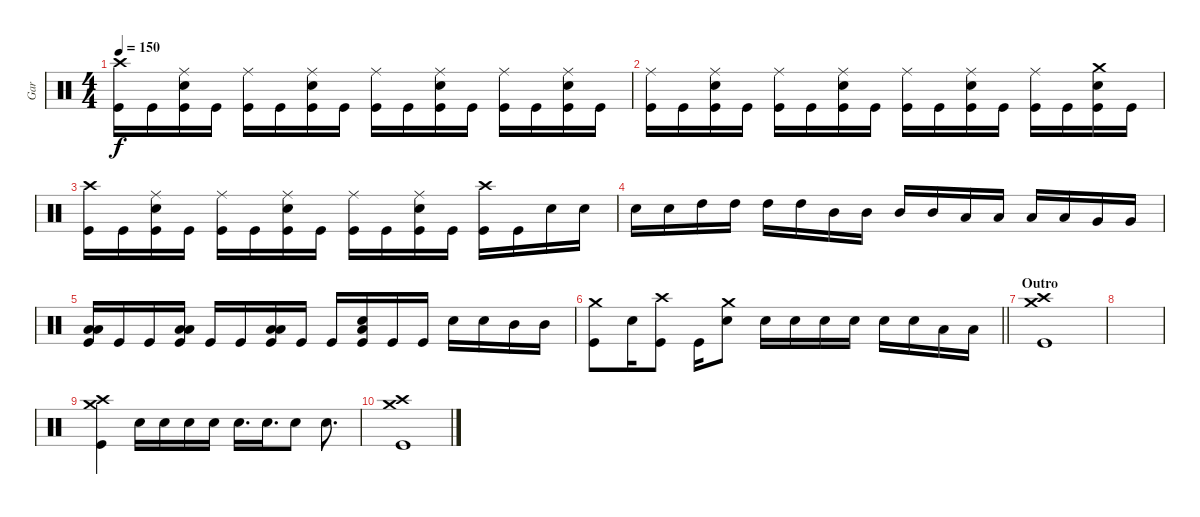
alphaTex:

\track ("Gar" "Gar") {instrument percussion}
\staff {score}
\articulation defaults
\ts (4 4)
\tempo 150
\clef neutral
\ks c
("Crash high (hit)" "Kick (hit)").16{dy f} "Kick (hit)".16 ("Ride (middle)" "Snare (hit) 2" "Kick (hit)").16 "Kick (hit)".16 ("Ride (middle)" "Kick (hit)").16 "Kick (hit)".16 ("Ride (middle)" "Snare (hit) 2" "Kick (hit)").16 "Kick (hit)".16 ("Ride (middle)" "Kick (hit)").16 "Kick (hit)".16 ("Ride (middle)" "Snare (hit) 2" "Kick (hit)").16 "Kick (hit)".16 ("Ride (middle)" "Kick (hit)").16 "Kick (hit)".16 ("Ride (middle)" "Snare (hit) 2" "Kick (hit)").16 "Kick (hit)".16 |
("Ride (middle)" "Kick (hit)").16 "Kick (hit)".16 ("Ride (middle)" "Snare (hit) 2" "Kick (hit)").16 "Kick (hit)".16 ("Ride (middle)" "Kick (hit)").16 "Kick (hit)".16 ("Ride (middle)" "Snare (hit) 2" "Kick (hit)").16 "Kick (hit)".16 ("Ride (middle)" "Kick (hit)").16 "Kick (hit)".16 ("Ride (middle)" "Snare (hit) 2" "Kick (hit)").16 "Kick (hit)".16 ("Ride (middle)" "Kick (hit)").16 "Kick (hit)".16 ("Crash medium (hit)" "Snare (hit) 2" "Kick (hit)").16 "Kick (hit)".16 |
("Crash high (hit)" "Kick (hit)").16 "Kick (hit)".16 ("Ride (middle)" "Snare (hit) 2" "Kick (hit)").16 "Kick (hit)".16 ("Ride (middle)" "Kick (hit)").16 "Kick (hit)".16 ("Ride (middle)" "Snare (hit) 2" "Kick (hit)").16 "Kick (hit)".16 ("Ride (middle)" "Kick (hit)").16 "Kick (hit)".16 ("Ride (middle)" "Snare (hit) 2" "Kick (hit)").16 "Kick (hit)".16 ("Crash high (hit)" "Kick (hit)").16 "Kick (hit)".16 "Snare (hit) 2".16 "Snare (hit) 2".16 |
"Snare (hit) 2".16 "Snare (hit) 2".16 "High Tom (hit)".16 "High Tom (hit)".16 "High Tom (hit)".16 "High Tom (hit)".16 "Mid Tom (hit)".16 "Mid Tom (hit)".16 "Mid Tom (hit)".16 "Mid Tom (hit)".16 "Low Tom (hit)".16 "Low Tom (hit)".16 "Low Tom (hit)".16 "Low Tom (hit)".16 "Very Low Tom (hit)".16 "Very Low Tom (hit)".16 |
("Low Tom (hit)" "Low Tom (hit)" "Kick (hit)").16 "Kick (hit)".16 "Kick (hit)".16 ("Low Tom (hit)" "Low Tom (hit)" "Kick (hit)").16 "Kick (hit)".16 "Kick (hit)".16 ("Low Tom (hit)" "Low Tom (hit)" "Kick (hit)").16 "Kick (hit)".16 "Kick (hit)".16 ("Low Tom (hit)" "Snare (hit) 2" "Kick (hit)").16 "Kick (hit)".16 "Kick (hit)".16 "Snare (hit) 2".16 "Snare (hit) 2".16 "Mid Tom (hit)".16 "Mid Tom (hit)".16 |
\barLineRight lightlight
("Crash medium (hit)" "Kick (hit)").8 "Snare (hit) 2".16 ("Crash high (hit)" "Kick (hit)").8 "Kick (hit)".16 ("Crash medium (hit)" "Snare (hit) 2").8 "Snare (hit) 2".16 "Snare (hit) 2".16 "Snare (hit) 2".16 "Snare (hit) 2".16 "Snare (hit) 2".16 "Snare (hit) 2".16 "Low Tom (hit)".16 "Low Tom (hit)".16 |
\section ("" "Outro")
("Crash high (hit)" "Crash medium (hit)" "Kick (hit)").1 |
|
("Crash high (hit)" "Crash medium (hit)" "Kick (hit)").4 "Snare (hit) 2".16 "Snare (hit) 2".16 "Snare (hit) 2".16 "Snare (hit) 2".16 "Snare (hit) 2".16{d} "Snare (hit) 2".16{d} "Snare (hit) 2".8 "Snare (hit) 2".8{d} |
("Crash high (hit)" "Crash medium (hit)" "Kick (hit)").1
